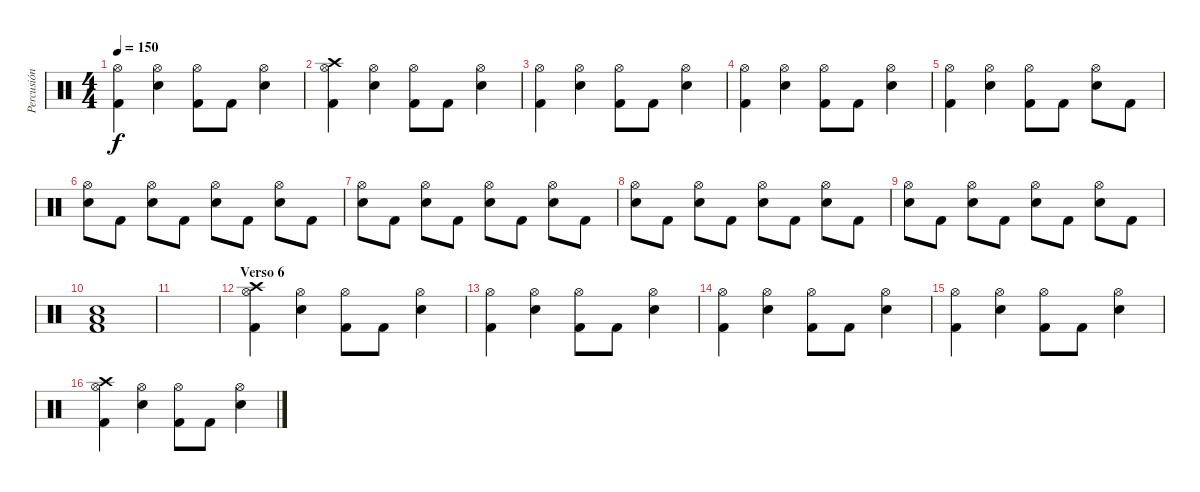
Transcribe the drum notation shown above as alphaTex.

\track ("Percusión" "Percusión") {instrument percussion}
\staff {score}
\articulation defaults
\ts (4 4)
\tempo 150
\clef neutral
\ks c
("Hi-Hat (open)" "Kick (hit) 2").4{dy f} ("Hi-Hat (open)" "Snare (hit) 2").4 ("Hi-Hat (open)" "Kick (hit) 2").8 "Kick (hit) 2".8 ("Hi-Hat (open)" "Snare (hit) 2").4 |
("Crash high (hit)" "Hi-Hat (open)" "Kick (hit) 2").4 ("Hi-Hat (open)" "Snare (hit) 2").4 ("Hi-Hat (open)" "Kick (hit) 2").8 "Kick (hit) 2".8 ("Hi-Hat (open)" "Snare (hit) 2").4 |
("Hi-Hat (open)" "Kick (hit) 2").4 ("Hi-Hat (open)" "Snare (hit) 2").4 ("Hi-Hat (open)" "Kick (hit) 2").8 "Kick (hit) 2".8 ("Hi-Hat (open)" "Snare (hit) 2").4 |
("Hi-Hat (open)" "Kick (hit) 2").4 ("Hi-Hat (open)" "Snare (hit) 2").4 ("Hi-Hat (open)" "Kick (hit) 2").8 "Kick (hit) 2".8 ("Hi-Hat (open)" "Snare (hit) 2").4 |
("Hi-Hat (open)" "Kick (hit) 2").4 ("Hi-Hat (open)" "Snare (hit) 2").4 ("Hi-Hat (open)" "Kick (hit) 2").8 "Kick (hit) 2".8 ("Hi-Hat (open)" "Snare (hit) 2").8 "Kick (hit) 2".8 |
("Hi-Hat (open)" "Snare (hit) 2").8 "Kick (hit) 2".8 ("Hi-Hat (open)" "Snare (hit) 2").8 "Kick (hit) 2".8 ("Hi-Hat (open)" "Snare (hit) 2").8 "Kick (hit) 2".8 ("Hi-Hat (open)" "Snare (hit) 2").8 "Kick (hit) 2".8 |
("Hi-Hat (open)" "Snare (hit) 2").8 "Kick (hit) 2".8 ("Hi-Hat (open)" "Snare (hit) 2").8 "Kick (hit) 2".8 ("Hi-Hat (open)" "Snare (hit) 2").8 "Kick (hit) 2".8 ("Hi-Hat (open)" "Snare (hit) 2").8 "Kick (hit) 2".8 |
("Hi-Hat (open)" "Snare (hit) 2").8 "Kick (hit) 2".8 ("Hi-Hat (open)" "Snare (hit) 2").8 "Kick (hit) 2".8 ("Hi-Hat (open)" "Snare (hit) 2").8 "Kick (hit) 2".8 ("Hi-Hat (open)" "Snare (hit) 2").8 "Kick (hit) 2".8 |
("Hi-Hat (open)" "Snare (hit) 2").8 "Kick (hit) 2".8 ("Hi-Hat (open)" "Snare (hit) 2").8 "Kick (hit) 2".8 ("Hi-Hat (open)" "Snare (hit) 2").8 "Kick (hit) 2".8 ("Hi-Hat (open)" "Snare (hit) 2").8 "Kick (hit) 2".8 |
("Snare (hit) 2" "Low Floor Tom (hit)" "Kick (hit) 2").1 |
|
\section ("" "Verso 6")
("Crash high (hit)" "Hi-Hat (open)" "Kick (hit) 2").4 ("Hi-Hat (open)" "Snare (hit) 2").4 ("Hi-Hat (open)" "Kick (hit) 2").8 "Kick (hit) 2".8 ("Hi-Hat (open)" "Snare (hit) 2").4 |
("Hi-Hat (open)" "Kick (hit) 2").4 ("Hi-Hat (open)" "Snare (hit) 2").4 ("Hi-Hat (open)" "Kick (hit) 2").8 "Kick (hit) 2".8 ("Hi-Hat (open)" "Snare (hit) 2").4 |
("Hi-Hat (open)" "Kick (hit) 2").4 ("Hi-Hat (open)" "Snare (hit) 2").4 ("Hi-Hat (open)" "Kick (hit) 2").8 "Kick (hit) 2".8 ("Hi-Hat (open)" "Snare (hit) 2").4 |
("Hi-Hat (open)" "Kick (hit) 2").4 ("Hi-Hat (open)" "Snare (hit) 2").4 ("Hi-Hat (open)" "Kick (hit) 2").8 "Kick (hit) 2".8 ("Hi-Hat (open)" "Snare (hit) 2").4 |
("Crash high (hit)" "Hi-Hat (open)" "Kick (hit) 2").4 ("Hi-Hat (open)" "Snare (hit) 2").4 ("Hi-Hat (open)" "Kick (hit) 2").8 "Kick (hit) 2".8 ("Hi-Hat (open)" "Snare (hit) 2").4
